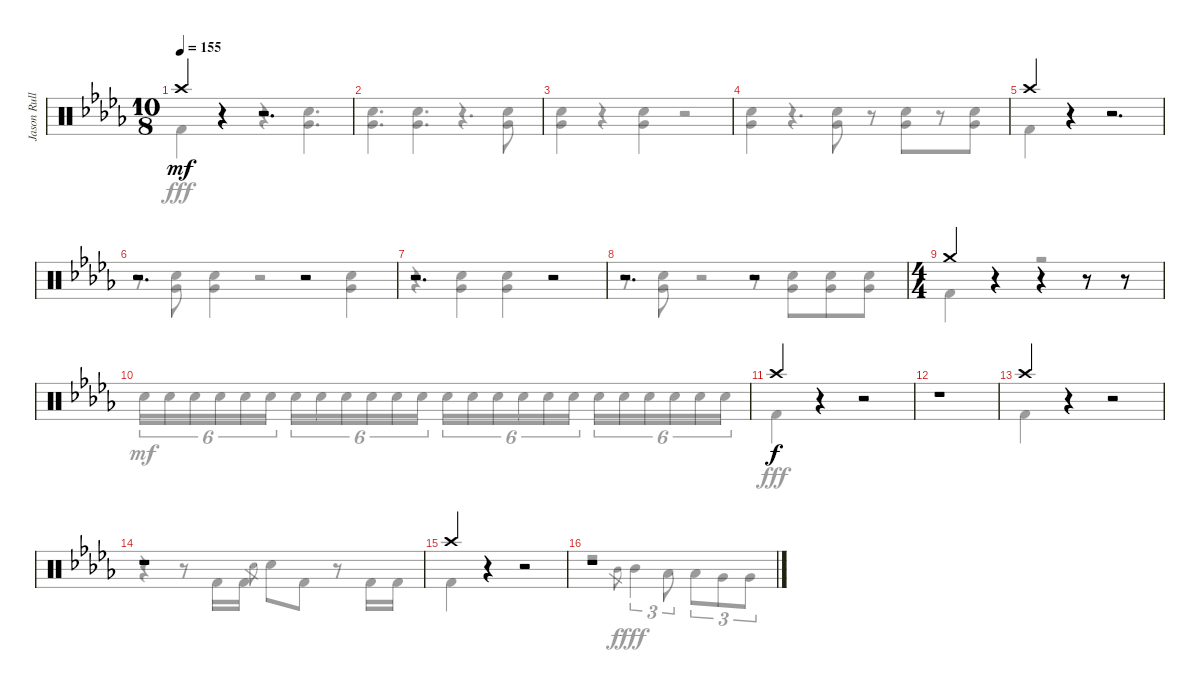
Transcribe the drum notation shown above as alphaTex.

\track ("Jason Rullo Drums" "Jason Rull") {instrument percussion}
\staff {score}
\articulation defaults
\voice
\ts (10 8)
\tempo 155
\clef neutral
\ks bbminor "Crash high (hit)".4{dy mf}
r.4 r.2{d} |
|
|
|
"Crash high (hit)".4 r.4 r.2{d} |
r.2{d} r.2 |
r.2{d} r.2 |
r.2{d} r.2 |
\ts (4 4)
"Crash medium (hit)".4 r.4 r.4 r.8 r.8{volume 5} |
|
"Crash high (hit)".4{dy f} r.4 r.2 |
r.1 |
"Crash high (hit)".4 r.4 r.2 |
r.1 |
"Crash high (hit)".4 r.4 r.2 |
r.1
\voice
\clef neutral
\ottava regular
\simile none
\ks bbminor "Kick (hit) 2".4{dy fff}
r.4 r.4{d} ("Electric Snare (hit)" "Very Low Tom (hit)").4{d} |
("Electric Snare (hit)" "Very Low Tom (hit)").4{d} ("Electric Snare (hit)" "Very Low Tom (hit)").4{d} r.4{d} ("Electric Snare (hit)" "Very Low Tom (hit)").8 |
("Electric Snare (hit)" "Very Low Tom (hit)").4 r.4 ("Electric Snare (hit)" "Very Low Tom (hit)").4 r.2 |
("Electric Snare (hit)" "Very Low Tom (hit)").4 r.4{d} ("Electric Snare (hit)" "Very Low Tom (hit)").8 r.8 ("Electric Snare (hit)" "Very Low Tom (hit)").8 r.8 ("Electric Snare (hit)" "Very Low Tom (hit)").8 |
"Kick (hit) 2".4 r.4 r.2{d} |
r.8 ("Electric Snare (hit)" "Very Low Tom (hit)").8 ("Electric Snare (hit)" "Very Low Tom (hit)").4 r.2 ("Electric Snare (hit)" "Very Low Tom (hit)").4 |
r.4 ("Electric Snare (hit)" "Very Low Tom (hit)").4 ("Electric Snare (hit)" "Very Low Tom (hit)").4 r.2 |
r.8 ("Electric Snare (hit)" "Very Low Tom (hit)").8 r.2 r.8 ("Electric Snare (hit)" "Very Low Tom (hit)").8 ("Electric Snare (hit)" "Very Low Tom (hit)").8 ("Electric Snare (hit)" "Very Low Tom (hit)").8 |
"Kick (hit) 2".4 r.4 r.2 |
"Electric Snare (hit)".16{tu (6 4) dy mf} "Electric Snare (hit)".16{tu (6 4)} "Electric Snare (hit)".16{tu (6 4)} "Electric Snare (hit)".16{tu (6 4)} "Electric Snare (hit)".16{tu (6 4)} "Electric Snare (hit)".16{tu (6 4)} "Electric Snare (hit)".16{tu (6 4)} "Electric Snare (hit)".16{tu (6 4)} "Electric Snare (hit)".16{tu (6 4)} "Electric Snare (hit)".16{tu (6 4)} "Electric Snare (hit)".16{tu (6 4)} "Electric Snare (hit)".16{tu (6 4)} "Electric Snare (hit)".16{tu (6 4)} "Electric Snare (hit)".16{tu (6 4)} "Electric Snare (hit)".16{tu (6 4)} "Electric Snare (hit)".16{tu (6 4)} "Electric Snare (hit)".16{tu (6 4)} "Electric Snare (hit)".16{tu (6 4)} "Electric Snare (hit)".16{tu (6 4)} "Electric Snare (hit)".16{tu (6 4)} "Electric Snare (hit)".16{tu (6 4)} "Electric Snare (hit)".16{tu (6 4)} "Electric Snare (hit)".16{tu (6 4)} "Electric Snare (hit)".16{tu (6 4)} |
"Kick (hit) 2".4{dy fff} r.4 r.2 |
r.1 |
"Kick (hit) 2".4 r.4 r.2 |
r.4 r.8 "Kick (hit) 2".16 "Kick (hit) 2".16 "Electric Snare (hit)".8{gr} "Electric Snare (hit)".8 "Kick (hit) 2".8 r.8 "Kick (hit) 2".16 "Kick (hit) 2".16 |
"Kick (hit) 2".4 r.4 r.2 |
r.2 "Mid Tom (hit)".8{gr dy f} "Mid Tom (hit)".4{tu (3 2) dy fff} "Low Tom (hit)".8{tu (3 2)} "Low Tom (hit)".8{tu (3 2)} "Very Low Tom (hit)".8{tu (3 2)} "Very Low Tom (hit)".8{tu (3 2)}
